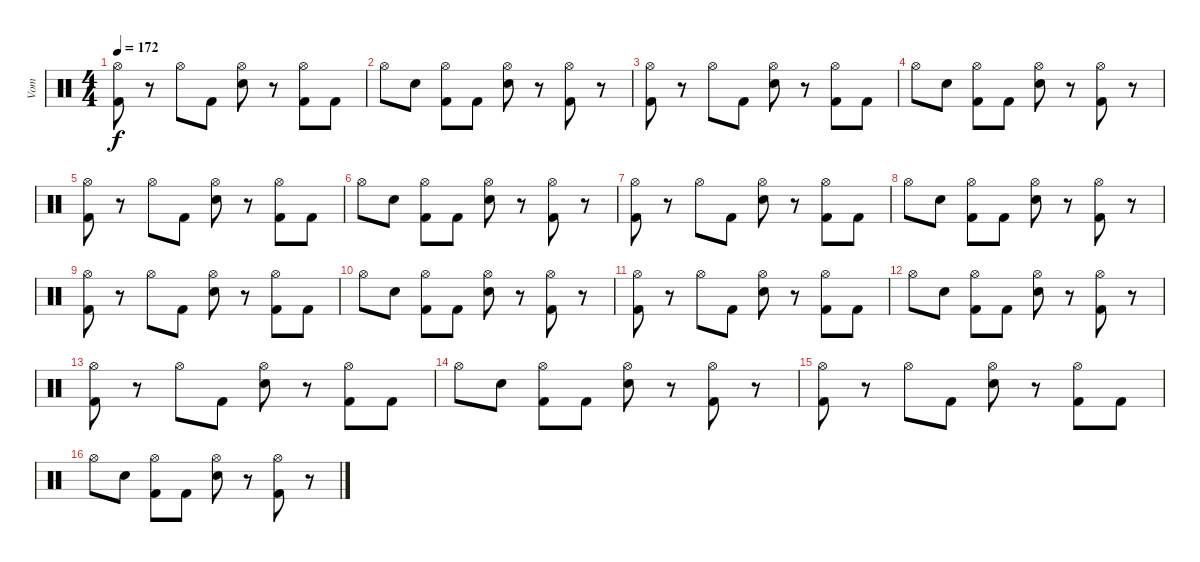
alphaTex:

\track ("Vom" "Vom") {instrument percussion}
\staff {score}
\articulation defaults
\ts (4 4)
\tempo 172
\clef neutral
\ks c
("Hi-Hat (open)" "Kick (hit) 2").8{dy f} r.8 "Hi-Hat (open)".8 "Kick (hit) 2".8 ("Hi-Hat (open)" "Snare (hit) 2").8 r.8 ("Hi-Hat (open)" "Kick (hit) 2").8 "Kick (hit) 2".8 |
"Hi-Hat (open)".8 "Snare (hit) 2".8 ("Hi-Hat (open)" "Kick (hit) 2").8 "Kick (hit) 2".8 ("Hi-Hat (open)" "Snare (hit) 2").8 r.8 ("Hi-Hat (open)" "Kick (hit) 2").8 r.8 |
("Hi-Hat (open)" "Kick (hit) 2").8 r.8 "Hi-Hat (open)".8 "Kick (hit) 2".8 ("Hi-Hat (open)" "Snare (hit) 2").8 r.8 ("Hi-Hat (open)" "Kick (hit) 2").8 "Kick (hit) 2".8 |
"Hi-Hat (open)".8 "Snare (hit) 2".8 ("Hi-Hat (open)" "Kick (hit) 2").8 "Kick (hit) 2".8 ("Hi-Hat (open)" "Snare (hit) 2").8 r.8 ("Hi-Hat (open)" "Kick (hit) 2").8 r.8 |
("Hi-Hat (open)" "Kick (hit) 2").8 r.8 "Hi-Hat (open)".8 "Kick (hit) 2".8 ("Hi-Hat (open)" "Snare (hit) 2").8 r.8 ("Hi-Hat (open)" "Kick (hit) 2").8 "Kick (hit) 2".8 |
"Hi-Hat (open)".8 "Snare (hit) 2".8 ("Hi-Hat (open)" "Kick (hit) 2").8 "Kick (hit) 2".8 ("Hi-Hat (open)" "Snare (hit) 2").8 r.8 ("Hi-Hat (open)" "Kick (hit) 2").8 r.8 |
("Hi-Hat (open)" "Kick (hit) 2").8 r.8 "Hi-Hat (open)".8 "Kick (hit) 2".8 ("Hi-Hat (open)" "Snare (hit) 2").8 r.8 ("Hi-Hat (open)" "Kick (hit) 2").8 "Kick (hit) 2".8 |
"Hi-Hat (open)".8 "Snare (hit) 2".8 ("Hi-Hat (open)" "Kick (hit) 2").8 "Kick (hit) 2".8 ("Hi-Hat (open)" "Snare (hit) 2").8 r.8 ("Hi-Hat (open)" "Kick (hit) 2").8 r.8 |
("Hi-Hat (open)" "Kick (hit) 2").8 r.8 "Hi-Hat (open)".8 "Kick (hit) 2".8 ("Hi-Hat (open)" "Snare (hit) 2").8 r.8 ("Hi-Hat (open)" "Kick (hit) 2").8 "Kick (hit) 2".8 |
"Hi-Hat (open)".8 "Snare (hit) 2".8 ("Hi-Hat (open)" "Kick (hit) 2").8 "Kick (hit) 2".8 ("Hi-Hat (open)" "Snare (hit) 2").8 r.8 ("Hi-Hat (open)" "Kick (hit) 2").8 r.8 |
("Hi-Hat (open)" "Kick (hit) 2").8 r.8 "Hi-Hat (open)".8 "Kick (hit) 2".8 ("Hi-Hat (open)" "Snare (hit) 2").8 r.8 ("Hi-Hat (open)" "Kick (hit) 2").8 "Kick (hit) 2".8 |
"Hi-Hat (open)".8 "Snare (hit) 2".8 ("Hi-Hat (open)" "Kick (hit) 2").8 "Kick (hit) 2".8 ("Hi-Hat (open)" "Snare (hit) 2").8 r.8 ("Hi-Hat (open)" "Kick (hit) 2").8 r.8 |
("Hi-Hat (open)" "Kick (hit) 2").8 r.8 "Hi-Hat (open)".8 "Kick (hit) 2".8 ("Hi-Hat (open)" "Snare (hit) 2").8 r.8 ("Hi-Hat (open)" "Kick (hit) 2").8 "Kick (hit) 2".8 |
"Hi-Hat (open)".8 "Snare (hit) 2".8 ("Hi-Hat (open)" "Kick (hit) 2").8 "Kick (hit) 2".8 ("Hi-Hat (open)" "Snare (hit) 2").8 r.8 ("Hi-Hat (open)" "Kick (hit) 2").8 r.8 |
("Hi-Hat (open)" "Kick (hit) 2").8 r.8 "Hi-Hat (open)".8 "Kick (hit) 2".8 ("Hi-Hat (open)" "Snare (hit) 2").8 r.8 ("Hi-Hat (open)" "Kick (hit) 2").8 "Kick (hit) 2".8 |
"Hi-Hat (open)".8 "Snare (hit) 2".8 ("Hi-Hat (open)" "Kick (hit) 2").8 "Kick (hit) 2".8 ("Hi-Hat (open)" "Snare (hit) 2").8 r.8 ("Hi-Hat (open)" "Kick (hit) 2").8 r.8
